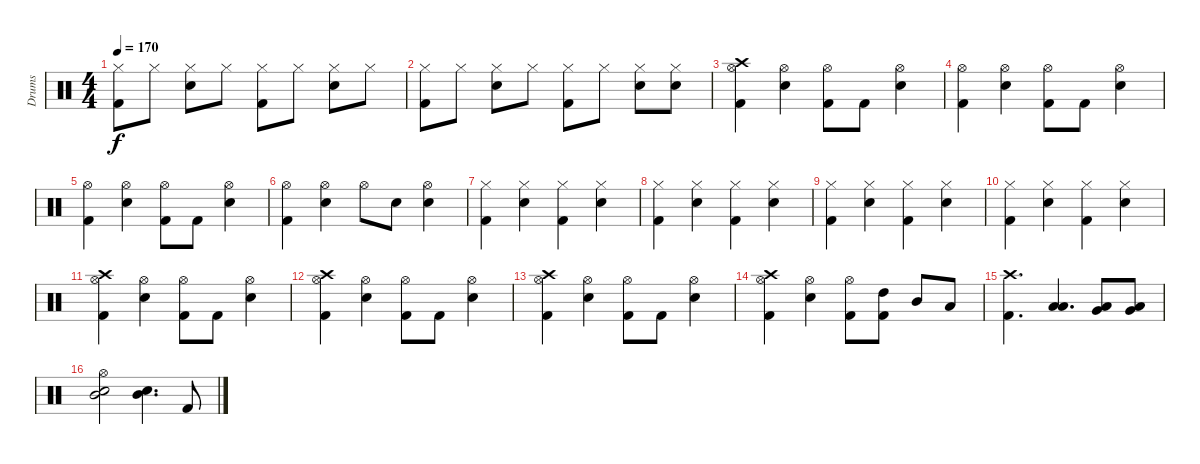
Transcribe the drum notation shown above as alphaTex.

\track ("Drums" "Drums") {instrument percussion}
\staff {score}
\articulation defaults
\ts (4 4)
\tempo 170
\clef neutral
\ks c
("Hi-Hat (closed)" "Kick (hit) 2").8{dy f} "Hi-Hat (closed)".8 ("Hi-Hat (closed)" "Electric Snare (hit)").8 "Hi-Hat (closed)".8 ("Hi-Hat (closed)" "Kick (hit) 2").8 "Hi-Hat (closed)".8 ("Hi-Hat (closed)" "Electric Snare (hit)").8 "Hi-Hat (closed)".8 |
("Hi-Hat (closed)" "Kick (hit) 2").8 "Hi-Hat (closed)".8 ("Hi-Hat (closed)" "Electric Snare (hit)").8 "Hi-Hat (closed)".8 ("Hi-Hat (closed)" "Kick (hit) 2").8 "Hi-Hat (closed)".8 ("Hi-Hat (closed)" "Electric Snare (hit)").8 ("Hi-Hat (closed)" "Electric Snare (hit)").8 |
("Crash high (hit)" "Hi-Hat (open)" "Kick (hit) 2").4 ("Hi-Hat (open)" "Electric Snare (hit)").4 ("Hi-Hat (open)" "Kick (hit) 2").8 "Kick (hit) 2".8 ("Hi-Hat (open)" "Electric Snare (hit)").4 |
("Hi-Hat (open)" "Kick (hit) 2").4 ("Hi-Hat (open)" "Electric Snare (hit)").4 ("Hi-Hat (open)" "Kick (hit) 2").8 "Kick (hit) 2".8 ("Hi-Hat (open)" "Electric Snare (hit)").4 |
("Hi-Hat (open)" "Kick (hit) 2").4 ("Hi-Hat (open)" "Electric Snare (hit)").4 ("Hi-Hat (open)" "Kick (hit) 2").8 "Kick (hit) 2".8 ("Hi-Hat (open)" "Electric Snare (hit)").4 |
("Hi-Hat (open)" "Kick (hit) 2").4 ("Hi-Hat (open)" "Electric Snare (hit)").4 "Hi-Hat (open)".8 "Electric Snare (hit)".8 ("Hi-Hat (open)" "Electric Snare (hit)").4 |
("Hi-Hat (closed)" "Kick (hit) 2").4 ("Hi-Hat (closed)" "Electric Snare (hit)").4 ("Hi-Hat (closed)" "Kick (hit) 2").4 ("Hi-Hat (closed)" "Electric Snare (hit)").4 |
("Hi-Hat (closed)" "Kick (hit) 2").4 ("Hi-Hat (closed)" "Electric Snare (hit)").4 ("Hi-Hat (closed)" "Kick (hit) 2").4 ("Hi-Hat (closed)" "Electric Snare (hit)").4 |
("Hi-Hat (closed)" "Kick (hit) 2").4 ("Hi-Hat (closed)" "Electric Snare (hit)").4 ("Hi-Hat (closed)" "Kick (hit) 2").4 ("Hi-Hat (closed)" "Electric Snare (hit)").4 |
("Hi-Hat (closed)" "Kick (hit) 2").4 ("Hi-Hat (closed)" "Electric Snare (hit)").4 ("Hi-Hat (closed)" "Kick (hit) 2").4 ("Hi-Hat (closed)" "Electric Snare (hit)").4 |
("Crash high (hit)" "Hi-Hat (open)" "Kick (hit) 2").4 ("Hi-Hat (open)" "Electric Snare (hit)").4 ("Hi-Hat (open)" "Kick (hit) 2").8 "Kick (hit) 2".8 ("Hi-Hat (open)" "Electric Snare (hit)").4 |
("Crash high (hit)" "Hi-Hat (open)" "Kick (hit) 2").4 ("Hi-Hat (open)" "Electric Snare (hit)").4 ("Hi-Hat (open)" "Kick (hit) 2").8 "Kick (hit) 2".8 ("Hi-Hat (open)" "Electric Snare (hit)").4 |
("Crash high (hit)" "Hi-Hat (open)" "Kick (hit) 2").4 ("Hi-Hat (open)" "Electric Snare (hit)").4 ("Hi-Hat (open)" "Kick (hit) 2").8 "Kick (hit) 2".8 ("Hi-Hat (open)" "Electric Snare (hit)").4 |
("Crash high (hit)" "Hi-Hat (open)" "Kick (hit) 2").4 ("Hi-Hat (open)" "Electric Snare (hit)").4 ("Hi-Hat (open)" "Kick (hit) 2").8 ("High Tom (hit)" "Kick (hit) 2").8 "Mid Tom (hit)".8 "Low Tom (hit)".8 |
("Crash high (hit)" "Kick (hit) 2").4{d} ("Low Tom (hit)" "Low Floor Tom (hit)").4{d} ("Low Tom (hit)" "Very Low Tom (hit)").8 ("Low Tom (hit)" "Very Low Tom (hit)").8 |
("Hi-Hat (open)" "Mid Tom (hit)" "Electric Snare (hit)").2 ("Mid Tom (hit)" "Electric Snare (hit)").4{d} "Kick (hit) 2".8
